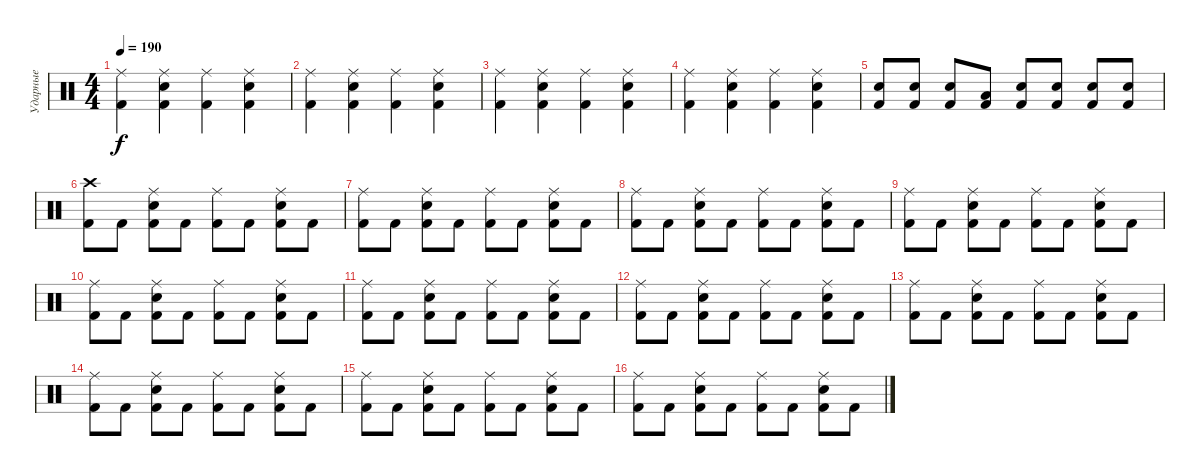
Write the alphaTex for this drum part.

\track ("Ударные" "Ударные") {instrument percussion}
\staff
\articulation defaults
\ts (4 4)
\tempo 190
\clef neutral
\ks c
("Ride (middle)" "Kick (hit) 2").4{dy f} ("Ride (middle)" "Snare (hit) 2" "Kick (hit) 2").4 ("Ride (middle)" "Kick (hit) 2").4 ("Ride (middle)" "Snare (hit) 2" "Kick (hit) 2").4 |
("Ride (middle)" "Kick (hit) 2").4 ("Ride (middle)" "Snare (hit) 2" "Kick (hit) 2").4 ("Ride (middle)" "Kick (hit) 2").4 ("Ride (middle)" "Snare (hit) 2" "Kick (hit) 2").4 |
("Ride (middle)" "Kick (hit) 2").4 ("Ride (middle)" "Snare (hit) 2" "Kick (hit) 2").4 ("Ride (middle)" "Kick (hit) 2").4 ("Ride (middle)" "Snare (hit) 2" "Kick (hit) 2").4 |
("Ride (middle)" "Kick (hit) 2").4 ("Ride (middle)" "Snare (hit) 2" "Kick (hit) 2").4 ("Ride (middle)" "Kick (hit) 2").4 ("Ride (middle)" "Snare (hit) 2" "Kick (hit) 2").4 |
("Electric Snare (hit)" "Kick (hit) 2").8 ("Electric Snare (hit)" "Kick (hit) 2").8 ("Electric Snare (hit)" "Kick (hit) 2").8 ("Low Tom (hit)" "Kick (hit) 2").8 ("Electric Snare (hit)" "Kick (hit) 2").8 ("Electric Snare (hit)" "Kick (hit) 2").8 ("Electric Snare (hit)" "Kick (hit) 2").8 ("Electric Snare (hit)" "Kick (hit) 2").8 |
("Crash high (hit)" "Kick (hit) 2").8 "Kick (hit) 2".8 ("Ride (middle)" "Snare (hit) 2" "Kick (hit) 2").8 "Kick (hit) 2".8 ("Ride (middle)" "Kick (hit) 2").8 "Kick (hit) 2".8 ("Ride (middle)" "Snare (hit) 2" "Kick (hit) 2").8 "Kick (hit) 2".8 |
("Ride (middle)" "Kick (hit) 2").8 "Kick (hit) 2".8 ("Ride (middle)" "Snare (hit) 2" "Kick (hit) 2").8 "Kick (hit) 2".8 ("Ride (middle)" "Kick (hit) 2").8 "Kick (hit) 2".8 ("Ride (middle)" "Snare (hit) 2" "Kick (hit) 2").8 "Kick (hit) 2".8 |
("Ride (middle)" "Kick (hit) 2").8 "Kick (hit) 2".8 ("Ride (middle)" "Snare (hit) 2" "Kick (hit) 2").8 "Kick (hit) 2".8 ("Ride (middle)" "Kick (hit) 2").8 "Kick (hit) 2".8 ("Ride (middle)" "Snare (hit) 2" "Kick (hit) 2").8 "Kick (hit) 2".8 |
("Ride (middle)" "Kick (hit) 2").8 "Kick (hit) 2".8 ("Ride (middle)" "Snare (hit) 2" "Kick (hit) 2").8 "Kick (hit) 2".8 ("Ride (middle)" "Kick (hit) 2").8 "Kick (hit) 2".8 ("Ride (middle)" "Snare (hit) 2" "Kick (hit) 2").8 "Kick (hit) 2".8 |
("Ride (middle)" "Kick (hit) 2").8 "Kick (hit) 2".8 ("Ride (middle)" "Snare (hit) 2" "Kick (hit) 2").8 "Kick (hit) 2".8 ("Ride (middle)" "Kick (hit) 2").8 "Kick (hit) 2".8 ("Ride (middle)" "Snare (hit) 2" "Kick (hit) 2").8 "Kick (hit) 2".8 |
("Ride (middle)" "Kick (hit) 2").8 "Kick (hit) 2".8 ("Ride (middle)" "Snare (hit) 2" "Kick (hit) 2").8 "Kick (hit) 2".8 ("Ride (middle)" "Kick (hit) 2").8 "Kick (hit) 2".8 ("Ride (middle)" "Snare (hit) 2" "Kick (hit) 2").8 "Kick (hit) 2".8 |
("Ride (middle)" "Kick (hit) 2").8 "Kick (hit) 2".8 ("Ride (middle)" "Snare (hit) 2" "Kick (hit) 2").8 "Kick (hit) 2".8 ("Ride (middle)" "Kick (hit) 2").8 "Kick (hit) 2".8 ("Ride (middle)" "Snare (hit) 2" "Kick (hit) 2").8 "Kick (hit) 2".8 |
("Ride (middle)" "Kick (hit) 2").8 "Kick (hit) 2".8 ("Ride (middle)" "Snare (hit) 2" "Kick (hit) 2").8 "Kick (hit) 2".8 ("Ride (middle)" "Kick (hit) 2").8 "Kick (hit) 2".8 ("Ride (middle)" "Snare (hit) 2" "Kick (hit) 2").8 "Kick (hit) 2".8 |
("Ride (middle)" "Kick (hit) 2").8 "Kick (hit) 2".8 ("Ride (middle)" "Snare (hit) 2" "Kick (hit) 2").8 "Kick (hit) 2".8 ("Ride (middle)" "Kick (hit) 2").8 "Kick (hit) 2".8 ("Ride (middle)" "Snare (hit) 2" "Kick (hit) 2").8 "Kick (hit) 2".8 |
("Ride (middle)" "Kick (hit) 2").8 "Kick (hit) 2".8 ("Ride (middle)" "Snare (hit) 2" "Kick (hit) 2").8 "Kick (hit) 2".8 ("Ride (middle)" "Kick (hit) 2").8 "Kick (hit) 2".8 ("Ride (middle)" "Snare (hit) 2" "Kick (hit) 2").8 "Kick (hit) 2".8 |
("Ride (middle)" "Kick (hit) 2").8 "Kick (hit) 2".8 ("Ride (middle)" "Snare (hit) 2" "Kick (hit) 2").8 "Kick (hit) 2".8 ("Ride (middle)" "Kick (hit) 2").8 "Kick (hit) 2".8 ("Ride (middle)" "Snare (hit) 2" "Kick (hit) 2").8 "Kick (hit) 2".8
